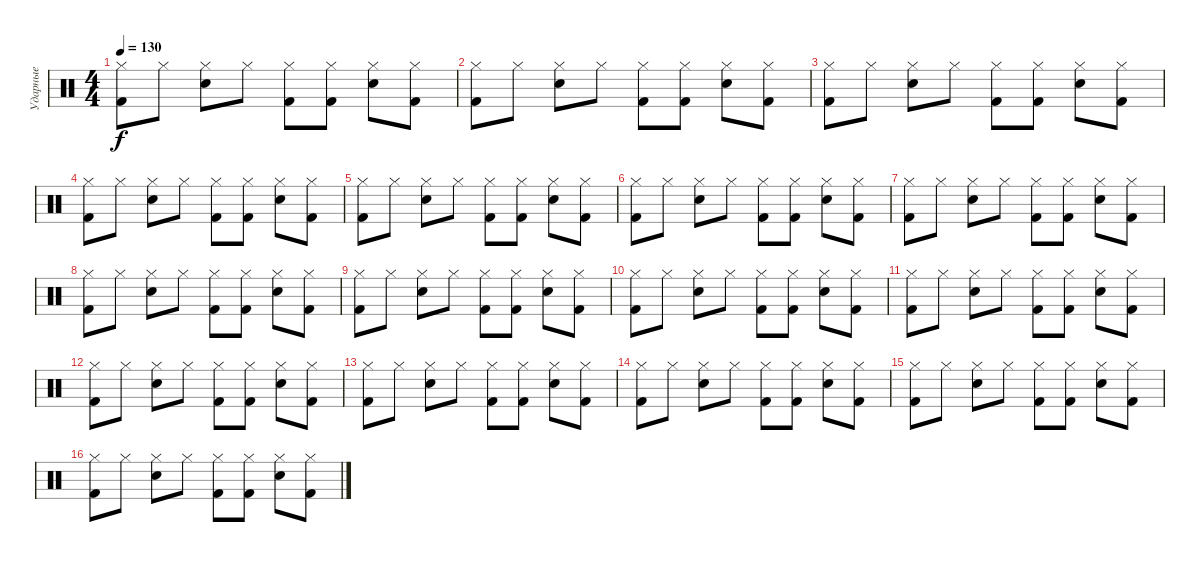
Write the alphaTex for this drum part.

\track ("Ударные" "Ударные") {instrument percussion}
\staff {score}
\articulation defaults
\ts (4 4)
\tempo 130
\clef neutral
\ks c
("Hi-Hat (closed)" "Kick (hit) 2").8{dy f} "Hi-Hat (closed)".8 ("Hi-Hat (closed)" "Snare (hit) 2").8 "Hi-Hat (closed)".8 ("Hi-Hat (closed)" "Kick (hit) 2").8 ("Hi-Hat (closed)" "Kick (hit) 2").8 ("Hi-Hat (closed)" "Snare (hit) 2").8 ("Hi-Hat (closed)" "Kick (hit) 2").8 |
("Hi-Hat (closed)" "Kick (hit) 2").8 "Hi-Hat (closed)".8 ("Hi-Hat (closed)" "Snare (hit) 2").8 "Hi-Hat (closed)".8 ("Hi-Hat (closed)" "Kick (hit) 2").8 ("Hi-Hat (closed)" "Kick (hit) 2").8 ("Hi-Hat (closed)" "Snare (hit) 2").8 ("Hi-Hat (closed)" "Kick (hit) 2").8 |
("Hi-Hat (closed)" "Kick (hit) 2").8 "Hi-Hat (closed)".8 ("Hi-Hat (closed)" "Snare (hit) 2").8 "Hi-Hat (closed)".8 ("Hi-Hat (closed)" "Kick (hit) 2").8 ("Hi-Hat (closed)" "Kick (hit) 2").8 ("Hi-Hat (closed)" "Snare (hit) 2").8 ("Hi-Hat (closed)" "Kick (hit) 2").8 |
("Hi-Hat (closed)" "Kick (hit) 2").8 "Hi-Hat (closed)".8 ("Hi-Hat (closed)" "Snare (hit) 2").8 "Hi-Hat (closed)".8 ("Hi-Hat (closed)" "Kick (hit) 2").8 ("Hi-Hat (closed)" "Kick (hit) 2").8 ("Hi-Hat (closed)" "Snare (hit) 2").8 ("Hi-Hat (closed)" "Kick (hit) 2").8 |
("Hi-Hat (closed)" "Kick (hit) 2").8 "Hi-Hat (closed)".8 ("Hi-Hat (closed)" "Snare (hit) 2").8 "Hi-Hat (closed)".8 ("Hi-Hat (closed)" "Kick (hit) 2").8 ("Hi-Hat (closed)" "Kick (hit) 2").8 ("Hi-Hat (closed)" "Snare (hit) 2").8 ("Hi-Hat (closed)" "Kick (hit) 2").8 |
("Hi-Hat (closed)" "Kick (hit) 2").8 "Hi-Hat (closed)".8 ("Hi-Hat (closed)" "Snare (hit) 2").8 "Hi-Hat (closed)".8 ("Hi-Hat (closed)" "Kick (hit) 2").8 ("Hi-Hat (closed)" "Kick (hit) 2").8 ("Hi-Hat (closed)" "Snare (hit) 2").8 ("Hi-Hat (closed)" "Kick (hit) 2").8 |
("Hi-Hat (closed)" "Kick (hit) 2").8 "Hi-Hat (closed)".8 ("Hi-Hat (closed)" "Snare (hit) 2").8 "Hi-Hat (closed)".8 ("Hi-Hat (closed)" "Kick (hit) 2").8 ("Hi-Hat (closed)" "Kick (hit) 2").8 ("Hi-Hat (closed)" "Snare (hit) 2").8 ("Hi-Hat (closed)" "Kick (hit) 2").8 |
("Hi-Hat (closed)" "Kick (hit) 2").8 "Hi-Hat (closed)".8 ("Hi-Hat (closed)" "Snare (hit) 2").8 "Hi-Hat (closed)".8 ("Hi-Hat (closed)" "Kick (hit) 2").8 ("Hi-Hat (closed)" "Kick (hit) 2").8 ("Hi-Hat (closed)" "Snare (hit) 2").8 ("Hi-Hat (closed)" "Kick (hit) 2").8 |
("Hi-Hat (closed)" "Kick (hit) 2").8 "Hi-Hat (closed)".8 ("Hi-Hat (closed)" "Snare (hit) 2").8 "Hi-Hat (closed)".8 ("Hi-Hat (closed)" "Kick (hit) 2").8 ("Hi-Hat (closed)" "Kick (hit) 2").8 ("Hi-Hat (closed)" "Snare (hit) 2").8 ("Hi-Hat (closed)" "Kick (hit) 2").8 |
("Hi-Hat (closed)" "Kick (hit) 2").8 "Hi-Hat (closed)".8 ("Hi-Hat (closed)" "Snare (hit) 2").8 "Hi-Hat (closed)".8 ("Hi-Hat (closed)" "Kick (hit) 2").8 ("Hi-Hat (closed)" "Kick (hit) 2").8 ("Hi-Hat (closed)" "Snare (hit) 2").8 ("Hi-Hat (closed)" "Kick (hit) 2").8 |
("Hi-Hat (closed)" "Kick (hit) 2").8 "Hi-Hat (closed)".8 ("Hi-Hat (closed)" "Snare (hit) 2").8 "Hi-Hat (closed)".8 ("Hi-Hat (closed)" "Kick (hit) 2").8 ("Hi-Hat (closed)" "Kick (hit) 2").8 ("Hi-Hat (closed)" "Snare (hit) 2").8 ("Hi-Hat (closed)" "Kick (hit) 2").8 |
("Hi-Hat (closed)" "Kick (hit) 2").8 "Hi-Hat (closed)".8 ("Hi-Hat (closed)" "Snare (hit) 2").8 "Hi-Hat (closed)".8 ("Hi-Hat (closed)" "Kick (hit) 2").8 ("Hi-Hat (closed)" "Kick (hit) 2").8 ("Hi-Hat (closed)" "Snare (hit) 2").8 ("Hi-Hat (closed)" "Kick (hit) 2").8 |
("Hi-Hat (closed)" "Kick (hit) 2").8 "Hi-Hat (closed)".8 ("Hi-Hat (closed)" "Snare (hit) 2").8 "Hi-Hat (closed)".8 ("Hi-Hat (closed)" "Kick (hit) 2").8 ("Hi-Hat (closed)" "Kick (hit) 2").8 ("Hi-Hat (closed)" "Snare (hit) 2").8 ("Hi-Hat (closed)" "Kick (hit) 2").8 |
("Hi-Hat (closed)" "Kick (hit) 2").8 "Hi-Hat (closed)".8 ("Hi-Hat (closed)" "Snare (hit) 2").8 "Hi-Hat (closed)".8 ("Hi-Hat (closed)" "Kick (hit) 2").8 ("Hi-Hat (closed)" "Kick (hit) 2").8 ("Hi-Hat (closed)" "Snare (hit) 2").8 ("Hi-Hat (closed)" "Kick (hit) 2").8 |
("Hi-Hat (closed)" "Kick (hit) 2").8 "Hi-Hat (closed)".8 ("Hi-Hat (closed)" "Snare (hit) 2").8 "Hi-Hat (closed)".8 ("Hi-Hat (closed)" "Kick (hit) 2").8 ("Hi-Hat (closed)" "Kick (hit) 2").8 ("Hi-Hat (closed)" "Snare (hit) 2").8 ("Hi-Hat (closed)" "Kick (hit) 2").8 |
("Hi-Hat (closed)" "Kick (hit) 2").8 "Hi-Hat (closed)".8 ("Hi-Hat (closed)" "Snare (hit) 2").8 "Hi-Hat (closed)".8 ("Hi-Hat (closed)" "Kick (hit) 2").8 ("Hi-Hat (closed)" "Kick (hit) 2").8 ("Hi-Hat (closed)" "Snare (hit) 2").8 ("Hi-Hat (closed)" "Kick (hit) 2").8
